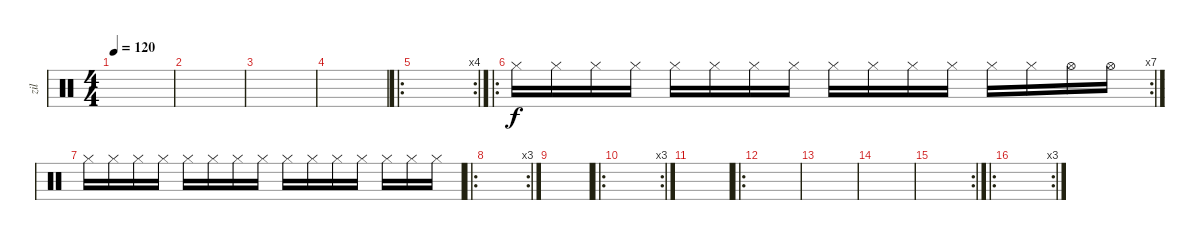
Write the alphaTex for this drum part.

\track ("zil" "zil") {instrument percussion}
\staff {score}
\articulation defaults
\ts (4 4)
\tempo 120
\clef neutral
\ks c
|
|
|
|
\ro
\rc 4
|
\ro
\rc 7 "Hi-Hat (closed)".16 "Hi-Hat (closed)".16 "Hi-Hat (closed)".16 "Hi-Hat (closed)".16 "Hi-Hat (closed)".16 "Hi-Hat (closed)".16 "Hi-Hat (closed)".16 "Hi-Hat (closed)".16 "Hi-Hat (closed)".16 "Hi-Hat (closed)".16 "Hi-Hat (closed)".16 "Hi-Hat (closed)".16 "Hi-Hat (closed)".16 "Hi-Hat (closed)".16 "Hi-Hat (open)".16 "Hi-Hat (open)".16
|
"Hi-Hat (closed)".16 "Hi-Hat (closed)".16 "Hi-Hat (closed)".16 "Hi-Hat (closed)".16 "Hi-Hat (closed)".16 "Hi-Hat (closed)".16 "Hi-Hat (closed)".16 "Hi-Hat (closed)".16 "Hi-Hat (closed)".16 "Hi-Hat (closed)".16 "Hi-Hat (closed)".16 "Hi-Hat (closed)".16 "Hi-Hat (closed)".16 "Hi-Hat (closed)".16 "Hi-Hat (closed)".16 |
\ro
\rc 3
|
|
\ro
\rc 3
|
|
\ro
|
|
|
\rc 2
|
\ro
\rc 3
